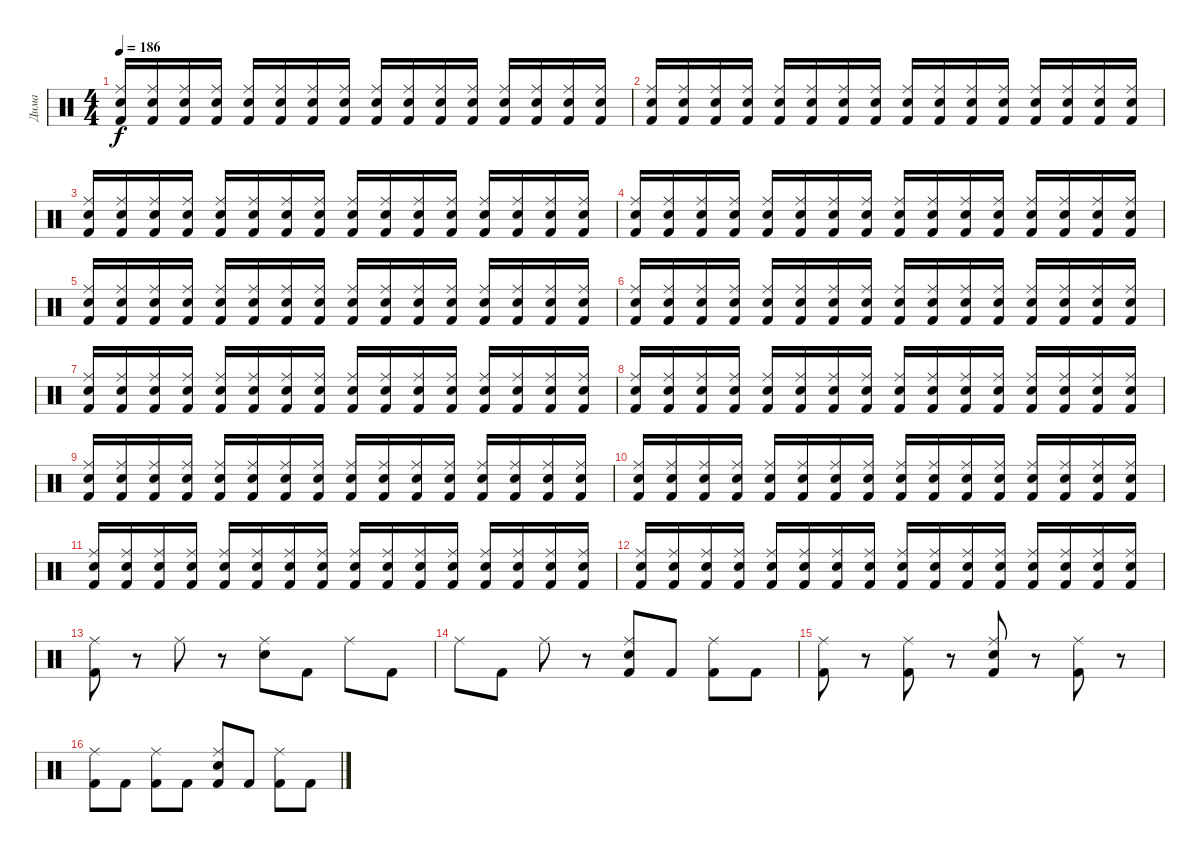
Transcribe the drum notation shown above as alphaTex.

\track ("Дима" "Дима") {instrument percussion}
\staff {score}
\articulation defaults
\ts (4 4)
\tempo 186
\clef neutral
\ks c
("Kick (hit) 2" "Ride (middle)" "Snare (hit) 2").16{dy f} ("Kick (hit) 2" "Ride (middle)" "Snare (hit) 2").16 ("Kick (hit) 2" "Ride (middle)" "Snare (hit) 2").16 ("Kick (hit) 2" "Ride (middle)" "Snare (hit) 2").16 ("Kick (hit) 2" "Ride (middle)" "Snare (hit) 2").16 ("Kick (hit) 2" "Ride (middle)" "Snare (hit) 2").16 ("Kick (hit) 2" "Ride (middle)" "Snare (hit) 2").16 ("Kick (hit) 2" "Ride (middle)" "Snare (hit) 2").16 ("Kick (hit) 2" "Ride (middle)" "Snare (hit) 2").16 ("Kick (hit) 2" "Ride (middle)" "Snare (hit) 2").16 ("Kick (hit) 2" "Ride (middle)" "Snare (hit) 2").16 ("Kick (hit) 2" "Ride (middle)" "Snare (hit) 2").16 ("Kick (hit) 2" "Ride (middle)" "Snare (hit) 2").16 ("Kick (hit) 2" "Ride (middle)" "Snare (hit) 2").16 ("Kick (hit) 2" "Ride (middle)" "Snare (hit) 2").16 ("Kick (hit) 2" "Ride (middle)" "Snare (hit) 2").16 |
("Kick (hit) 2" "Ride (middle)" "Snare (hit) 2").16 ("Kick (hit) 2" "Ride (middle)" "Snare (hit) 2").16 ("Kick (hit) 2" "Ride (middle)" "Snare (hit) 2").16 ("Kick (hit) 2" "Ride (middle)" "Snare (hit) 2").16 ("Kick (hit) 2" "Ride (middle)" "Snare (hit) 2").16 ("Kick (hit) 2" "Ride (middle)" "Snare (hit) 2").16 ("Kick (hit) 2" "Ride (middle)" "Snare (hit) 2").16 ("Kick (hit) 2" "Ride (middle)" "Snare (hit) 2").16 ("Kick (hit) 2" "Ride (middle)" "Snare (hit) 2").16 ("Kick (hit) 2" "Ride (middle)" "Snare (hit) 2").16 ("Kick (hit) 2" "Ride (middle)" "Snare (hit) 2").16 ("Kick (hit) 2" "Ride (middle)" "Snare (hit) 2").16 ("Kick (hit) 2" "Ride (middle)" "Snare (hit) 2").16 ("Kick (hit) 2" "Ride (middle)" "Snare (hit) 2").16 ("Kick (hit) 2" "Ride (middle)" "Snare (hit) 2").16 ("Kick (hit) 2" "Ride (middle)" "Snare (hit) 2").16 |
("Kick (hit) 2" "Ride (middle)" "Snare (hit) 2").16 ("Kick (hit) 2" "Ride (middle)" "Snare (hit) 2").16 ("Kick (hit) 2" "Ride (middle)" "Snare (hit) 2").16 ("Kick (hit) 2" "Ride (middle)" "Snare (hit) 2").16 ("Kick (hit) 2" "Ride (middle)" "Snare (hit) 2").16 ("Kick (hit) 2" "Ride (middle)" "Snare (hit) 2").16 ("Kick (hit) 2" "Ride (middle)" "Snare (hit) 2").16 ("Kick (hit) 2" "Ride (middle)" "Snare (hit) 2").16 ("Kick (hit) 2" "Ride (middle)" "Snare (hit) 2").16 ("Kick (hit) 2" "Ride (middle)" "Snare (hit) 2").16 ("Kick (hit) 2" "Ride (middle)" "Snare (hit) 2").16 ("Kick (hit) 2" "Ride (middle)" "Snare (hit) 2").16 ("Kick (hit) 2" "Ride (middle)" "Snare (hit) 2").16 ("Kick (hit) 2" "Ride (middle)" "Snare (hit) 2").16 ("Kick (hit) 2" "Ride (middle)" "Snare (hit) 2").16 ("Kick (hit) 2" "Ride (middle)" "Snare (hit) 2").16 |
("Kick (hit) 2" "Ride (middle)" "Snare (hit) 2").16 ("Kick (hit) 2" "Ride (middle)" "Snare (hit) 2").16 ("Kick (hit) 2" "Ride (middle)" "Snare (hit) 2").16 ("Kick (hit) 2" "Ride (middle)" "Snare (hit) 2").16 ("Kick (hit) 2" "Ride (middle)" "Snare (hit) 2").16 ("Kick (hit) 2" "Ride (middle)" "Snare (hit) 2").16 ("Kick (hit) 2" "Ride (middle)" "Snare (hit) 2").16 ("Kick (hit) 2" "Ride (middle)" "Snare (hit) 2").16 ("Kick (hit) 2" "Ride (middle)" "Snare (hit) 2").16 ("Kick (hit) 2" "Ride (middle)" "Snare (hit) 2").16 ("Kick (hit) 2" "Ride (middle)" "Snare (hit) 2").16 ("Kick (hit) 2" "Ride (middle)" "Snare (hit) 2").16 ("Kick (hit) 2" "Ride (middle)" "Snare (hit) 2").16 ("Kick (hit) 2" "Ride (middle)" "Snare (hit) 2").16 ("Kick (hit) 2" "Ride (middle)" "Snare (hit) 2").16 ("Kick (hit) 2" "Ride (middle)" "Snare (hit) 2").16 |
("Kick (hit) 2" "Ride (middle)" "Snare (hit) 2").16 ("Kick (hit) 2" "Ride (middle)" "Snare (hit) 2").16 ("Kick (hit) 2" "Ride (middle)" "Snare (hit) 2").16 ("Kick (hit) 2" "Ride (middle)" "Snare (hit) 2").16 ("Kick (hit) 2" "Ride (middle)" "Snare (hit) 2").16 ("Kick (hit) 2" "Ride (middle)" "Snare (hit) 2").16 ("Kick (hit) 2" "Ride (middle)" "Snare (hit) 2").16 ("Kick (hit) 2" "Ride (middle)" "Snare (hit) 2").16 ("Kick (hit) 2" "Ride (middle)" "Snare (hit) 2").16 ("Kick (hit) 2" "Ride (middle)" "Snare (hit) 2").16 ("Kick (hit) 2" "Ride (middle)" "Snare (hit) 2").16 ("Kick (hit) 2" "Ride (middle)" "Snare (hit) 2").16 ("Kick (hit) 2" "Ride (middle)" "Snare (hit) 2").16 ("Kick (hit) 2" "Ride (middle)" "Snare (hit) 2").16 ("Kick (hit) 2" "Ride (middle)" "Snare (hit) 2").16 ("Kick (hit) 2" "Ride (middle)" "Snare (hit) 2").16 |
("Kick (hit) 2" "Ride (middle)" "Snare (hit) 2").16 ("Kick (hit) 2" "Ride (middle)" "Snare (hit) 2").16 ("Kick (hit) 2" "Ride (middle)" "Snare (hit) 2").16 ("Kick (hit) 2" "Ride (middle)" "Snare (hit) 2").16 ("Kick (hit) 2" "Ride (middle)" "Snare (hit) 2").16 ("Kick (hit) 2" "Ride (middle)" "Snare (hit) 2").16 ("Kick (hit) 2" "Ride (middle)" "Snare (hit) 2").16 ("Kick (hit) 2" "Ride (middle)" "Snare (hit) 2").16 ("Kick (hit) 2" "Ride (middle)" "Snare (hit) 2").16 ("Kick (hit) 2" "Ride (middle)" "Snare (hit) 2").16 ("Kick (hit) 2" "Ride (middle)" "Snare (hit) 2").16 ("Kick (hit) 2" "Ride (middle)" "Snare (hit) 2").16 ("Kick (hit) 2" "Ride (middle)" "Snare (hit) 2").16 ("Kick (hit) 2" "Ride (middle)" "Snare (hit) 2").16 ("Kick (hit) 2" "Ride (middle)" "Snare (hit) 2").16 ("Kick (hit) 2" "Ride (middle)" "Snare (hit) 2").16 |
("Kick (hit) 2" "Ride (middle)" "Snare (hit) 2").16 ("Kick (hit) 2" "Ride (middle)" "Snare (hit) 2").16 ("Kick (hit) 2" "Ride (middle)" "Snare (hit) 2").16 ("Kick (hit) 2" "Ride (middle)" "Snare (hit) 2").16 ("Kick (hit) 2" "Ride (middle)" "Snare (hit) 2").16 ("Kick (hit) 2" "Ride (middle)" "Snare (hit) 2").16 ("Kick (hit) 2" "Ride (middle)" "Snare (hit) 2").16 ("Kick (hit) 2" "Ride (middle)" "Snare (hit) 2").16 ("Kick (hit) 2" "Ride (middle)" "Snare (hit) 2").16 ("Kick (hit) 2" "Ride (middle)" "Snare (hit) 2").16 ("Kick (hit) 2" "Ride (middle)" "Snare (hit) 2").16 ("Kick (hit) 2" "Ride (middle)" "Snare (hit) 2").16 ("Kick (hit) 2" "Ride (middle)" "Snare (hit) 2").16 ("Kick (hit) 2" "Ride (middle)" "Snare (hit) 2").16 ("Kick (hit) 2" "Ride (middle)" "Snare (hit) 2").16 ("Kick (hit) 2" "Ride (middle)" "Snare (hit) 2").16 |
("Kick (hit) 2" "Ride (middle)" "Snare (hit) 2").16 ("Kick (hit) 2" "Ride (middle)" "Snare (hit) 2").16 ("Kick (hit) 2" "Ride (middle)" "Snare (hit) 2").16 ("Kick (hit) 2" "Ride (middle)" "Snare (hit) 2").16 ("Kick (hit) 2" "Ride (middle)" "Snare (hit) 2").16 ("Kick (hit) 2" "Ride (middle)" "Snare (hit) 2").16 ("Kick (hit) 2" "Ride (middle)" "Snare (hit) 2").16 ("Kick (hit) 2" "Ride (middle)" "Snare (hit) 2").16 ("Kick (hit) 2" "Ride (middle)" "Snare (hit) 2").16 ("Kick (hit) 2" "Ride (middle)" "Snare (hit) 2").16 ("Kick (hit) 2" "Ride (middle)" "Snare (hit) 2").16 ("Kick (hit) 2" "Ride (middle)" "Snare (hit) 2").16 ("Kick (hit) 2" "Ride (middle)" "Snare (hit) 2").16 ("Kick (hit) 2" "Ride (middle)" "Snare (hit) 2").16 ("Kick (hit) 2" "Ride (middle)" "Snare (hit) 2").16 ("Kick (hit) 2" "Ride (middle)" "Snare (hit) 2").16 |
("Kick (hit) 2" "Ride (middle)" "Snare (hit) 2").16 ("Kick (hit) 2" "Ride (middle)" "Snare (hit) 2").16 ("Kick (hit) 2" "Ride (middle)" "Snare (hit) 2").16 ("Kick (hit) 2" "Ride (middle)" "Snare (hit) 2").16 ("Kick (hit) 2" "Ride (middle)" "Snare (hit) 2").16 ("Kick (hit) 2" "Ride (middle)" "Snare (hit) 2").16 ("Kick (hit) 2" "Ride (middle)" "Snare (hit) 2").16 ("Kick (hit) 2" "Ride (middle)" "Snare (hit) 2").16 ("Kick (hit) 2" "Ride (middle)" "Snare (hit) 2").16 ("Kick (hit) 2" "Ride (middle)" "Snare (hit) 2").16 ("Kick (hit) 2" "Ride (middle)" "Snare (hit) 2").16 ("Kick (hit) 2" "Ride (middle)" "Snare (hit) 2").16 ("Kick (hit) 2" "Ride (middle)" "Snare (hit) 2").16 ("Kick (hit) 2" "Ride (middle)" "Snare (hit) 2").16 ("Kick (hit) 2" "Ride (middle)" "Snare (hit) 2").16 ("Kick (hit) 2" "Ride (middle)" "Snare (hit) 2").16 |
("Kick (hit) 2" "Ride (middle)" "Snare (hit) 2").16 ("Kick (hit) 2" "Ride (middle)" "Snare (hit) 2").16 ("Kick (hit) 2" "Ride (middle)" "Snare (hit) 2").16 ("Kick (hit) 2" "Ride (middle)" "Snare (hit) 2").16 ("Kick (hit) 2" "Ride (middle)" "Snare (hit) 2").16 ("Kick (hit) 2" "Ride (middle)" "Snare (hit) 2").16 ("Kick (hit) 2" "Ride (middle)" "Snare (hit) 2").16 ("Kick (hit) 2" "Ride (middle)" "Snare (hit) 2").16 ("Kick (hit) 2" "Ride (middle)" "Snare (hit) 2").16 ("Kick (hit) 2" "Ride (middle)" "Snare (hit) 2").16 ("Kick (hit) 2" "Ride (middle)" "Snare (hit) 2").16 ("Kick (hit) 2" "Ride (middle)" "Snare (hit) 2").16 ("Kick (hit) 2" "Ride (middle)" "Snare (hit) 2").16 ("Kick (hit) 2" "Ride (middle)" "Snare (hit) 2").16 ("Kick (hit) 2" "Ride (middle)" "Snare (hit) 2").16 ("Kick (hit) 2" "Ride (middle)" "Snare (hit) 2").16 |
("Kick (hit) 2" "Ride (middle)" "Snare (hit) 2").16 ("Kick (hit) 2" "Ride (middle)" "Snare (hit) 2").16 ("Kick (hit) 2" "Ride (middle)" "Snare (hit) 2").16 ("Kick (hit) 2" "Ride (middle)" "Snare (hit) 2").16 ("Kick (hit) 2" "Ride (middle)" "Snare (hit) 2").16 ("Kick (hit) 2" "Ride (middle)" "Snare (hit) 2").16 ("Kick (hit) 2" "Ride (middle)" "Snare (hit) 2").16 ("Kick (hit) 2" "Ride (middle)" "Snare (hit) 2").16 ("Kick (hit) 2" "Ride (middle)" "Snare (hit) 2").16 ("Kick (hit) 2" "Ride (middle)" "Snare (hit) 2").16 ("Kick (hit) 2" "Ride (middle)" "Snare (hit) 2").16 ("Kick (hit) 2" "Ride (middle)" "Snare (hit) 2").16 ("Kick (hit) 2" "Ride (middle)" "Snare (hit) 2").16 ("Kick (hit) 2" "Ride (middle)" "Snare (hit) 2").16 ("Kick (hit) 2" "Ride (middle)" "Snare (hit) 2").16 ("Kick (hit) 2" "Ride (middle)" "Snare (hit) 2").16 |
("Kick (hit) 2" "Ride (middle)" "Snare (hit) 2").16 ("Kick (hit) 2" "Ride (middle)" "Snare (hit) 2").16 ("Kick (hit) 2" "Ride (middle)" "Snare (hit) 2").16 ("Kick (hit) 2" "Ride (middle)" "Snare (hit) 2").16 ("Kick (hit) 2" "Ride (middle)" "Snare (hit) 2").16 ("Kick (hit) 2" "Ride (middle)" "Snare (hit) 2").16 ("Kick (hit) 2" "Ride (middle)" "Snare (hit) 2").16 ("Kick (hit) 2" "Ride (middle)" "Snare (hit) 2").16 ("Kick (hit) 2" "Ride (middle)" "Snare (hit) 2").16 ("Kick (hit) 2" "Ride (middle)" "Snare (hit) 2").16 ("Kick (hit) 2" "Ride (middle)" "Snare (hit) 2").16 ("Kick (hit) 2" "Ride (middle)" "Snare (hit) 2").16 ("Kick (hit) 2" "Ride (middle)" "Snare (hit) 2").16 ("Kick (hit) 2" "Ride (middle)" "Snare (hit) 2").16 ("Kick (hit) 2" "Ride (middle)" "Snare (hit) 2").16 ("Kick (hit) 2" "Ride (middle)" "Snare (hit) 2").16 |
("Kick (hit) 2" "Ride (middle)").8 r.8 "Ride (middle)".8 r.8 ("Snare (hit) 2" "Ride (middle)").8 "Kick (hit) 2".8 "Ride (middle)".8 "Kick (hit) 2".8 |
"Ride (middle)".8 "Kick (hit) 2".8 "Ride (middle)".8 r.8 ("Kick (hit) 2" "Snare (hit) 2" "Ride (middle)").8 "Kick (hit) 2".8 ("Kick (hit) 2" "Ride (middle)").8 "Kick (hit) 2".8 |
("Kick (hit) 2" "Ride (middle)").8 r.8 ("Kick (hit) 2" "Ride (middle)").8 r.8 ("Kick (hit) 2" "Snare (hit) 2" "Ride (middle)").8 r.8 ("Kick (hit) 2" "Ride (middle)").8 r.8 |
("Kick (hit) 2" "Ride (middle)").8 "Kick (hit) 2".8 ("Kick (hit) 2" "Ride (middle)").8 "Kick (hit) 2".8 ("Kick (hit) 2" "Snare (hit) 2" "Ride (middle)").8 "Kick (hit) 2".8 ("Kick (hit) 2" "Ride (middle)").8 "Kick (hit) 2".8
